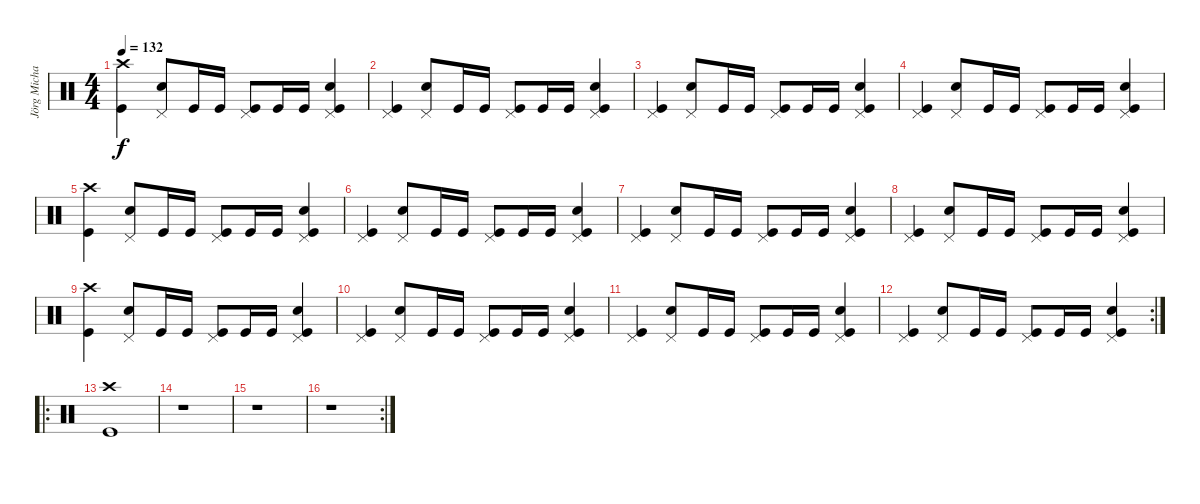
\track ("Jörg Michael (Drums)" "Jörg Micha") {instrument percussion}
\staff {score}
\articulation defaults
\ts (4 4)
\tempo 132
\clef neutral
\ks c
("Crash high (hit)" "Kick (hit)").4{dy f} ("Pedal Hi-Hat (hit)" "Snare (hit) 2").8 "Kick (hit)".16 "Kick (hit)".16 ("Pedal Hi-Hat (hit)" "Kick (hit)").8 "Kick (hit)".16 "Kick (hit)".16 ("Pedal Hi-Hat (hit)" "Kick (hit)" "Snare (hit) 2").4 |
("Pedal Hi-Hat (hit)" "Kick (hit)").4 ("Pedal Hi-Hat (hit)" "Snare (hit) 2").8 "Kick (hit)".16 "Kick (hit)".16 ("Pedal Hi-Hat (hit)" "Kick (hit)").8 "Kick (hit)".16 "Kick (hit)".16 ("Pedal Hi-Hat (hit)" "Kick (hit)" "Snare (hit) 2").4 |
("Pedal Hi-Hat (hit)" "Kick (hit)").4 ("Pedal Hi-Hat (hit)" "Snare (hit) 2").8 "Kick (hit)".16 "Kick (hit)".16 ("Pedal Hi-Hat (hit)" "Kick (hit)").8 "Kick (hit)".16 "Kick (hit)".16 ("Pedal Hi-Hat (hit)" "Kick (hit)" "Snare (hit) 2").4 |
("Pedal Hi-Hat (hit)" "Kick (hit)").4 ("Pedal Hi-Hat (hit)" "Snare (hit) 2").8 "Kick (hit)".16 "Kick (hit)".16 ("Pedal Hi-Hat (hit)" "Kick (hit)").8 "Kick (hit)".16 "Kick (hit)".16 ("Pedal Hi-Hat (hit)" "Kick (hit)" "Snare (hit) 2").4 |
("Crash high (hit)" "Kick (hit)").4 ("Pedal Hi-Hat (hit)" "Snare (hit) 2").8 "Kick (hit)".16 "Kick (hit)".16 ("Pedal Hi-Hat (hit)" "Kick (hit)").8 "Kick (hit)".16 "Kick (hit)".16 ("Pedal Hi-Hat (hit)" "Kick (hit)" "Snare (hit) 2").4 |
("Pedal Hi-Hat (hit)" "Kick (hit)").4 ("Pedal Hi-Hat (hit)" "Snare (hit) 2").8 "Kick (hit)".16 "Kick (hit)".16 ("Pedal Hi-Hat (hit)" "Kick (hit)").8 "Kick (hit)".16 "Kick (hit)".16 ("Pedal Hi-Hat (hit)" "Kick (hit)" "Snare (hit) 2").4 |
("Pedal Hi-Hat (hit)" "Kick (hit)").4 ("Pedal Hi-Hat (hit)" "Snare (hit) 2").8 "Kick (hit)".16 "Kick (hit)".16 ("Pedal Hi-Hat (hit)" "Kick (hit)").8 "Kick (hit)".16 "Kick (hit)".16 ("Pedal Hi-Hat (hit)" "Kick (hit)" "Snare (hit) 2").4 |
("Pedal Hi-Hat (hit)" "Kick (hit)").4 ("Pedal Hi-Hat (hit)" "Snare (hit) 2").8 "Kick (hit)".16 "Kick (hit)".16 ("Pedal Hi-Hat (hit)" "Kick (hit)").8 "Kick (hit)".16 "Kick (hit)".16 ("Pedal Hi-Hat (hit)" "Kick (hit)" "Snare (hit) 2").4 |
("Crash high (hit)" "Kick (hit)").4 ("Pedal Hi-Hat (hit)" "Snare (hit) 2").8 "Kick (hit)".16 "Kick (hit)".16 ("Pedal Hi-Hat (hit)" "Kick (hit)").8 "Kick (hit)".16 "Kick (hit)".16 ("Pedal Hi-Hat (hit)" "Kick (hit)" "Snare (hit) 2").4 |
("Pedal Hi-Hat (hit)" "Kick (hit)").4 ("Pedal Hi-Hat (hit)" "Snare (hit) 2").8 "Kick (hit)".16 "Kick (hit)".16 ("Pedal Hi-Hat (hit)" "Kick (hit)").8 "Kick (hit)".16 "Kick (hit)".16 ("Pedal Hi-Hat (hit)" "Kick (hit)" "Snare (hit) 2").4 |
("Pedal Hi-Hat (hit)" "Kick (hit)").4 ("Pedal Hi-Hat (hit)" "Snare (hit) 2").8 "Kick (hit)".16 "Kick (hit)".16 ("Pedal Hi-Hat (hit)" "Kick (hit)").8 "Kick (hit)".16 "Kick (hit)".16 ("Pedal Hi-Hat (hit)" "Kick (hit)" "Snare (hit) 2").4 |
\rc 2
("Pedal Hi-Hat (hit)" "Kick (hit)").4 ("Pedal Hi-Hat (hit)" "Snare (hit) 2").8 "Kick (hit)".16 "Kick (hit)".16 ("Pedal Hi-Hat (hit)" "Kick (hit)").8 "Kick (hit)".16 "Kick (hit)".16 ("Pedal Hi-Hat (hit)" "Kick (hit)" "Snare (hit) 2").4 |
\ro
("Crash high (hit)" "Kick (hit)").1 |
r.1 |
r.1 |
\rc 2
r.1
